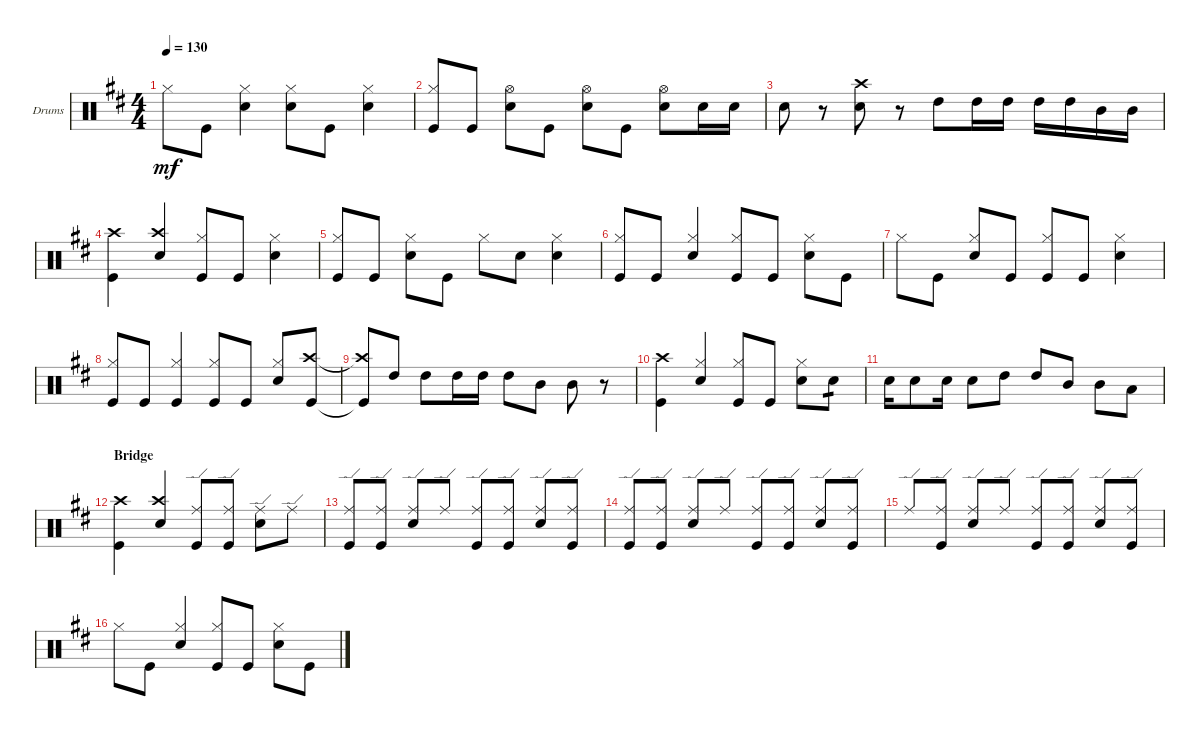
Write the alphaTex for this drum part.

\defaultSystemsLayout 4
\bracketExtendMode groupsimilarinstruments
\firstSystemTrackNameOrientation horizontal
\otherSystemsTrackNameOrientation horizontal
\track ("PETER CRISS" "Drums") {instrument percussion}
\staff {score}
\articulation defaults
\ts (4 4)
\tempo 130
\clef neutral
\scale
0.333333
\ks d "Hi-Hat (closed)".8{dy mf} "Kick (hit)".8
("Snare (hit) 2" "Hi-Hat (closed)").4 ("Hi-Hat (closed)" "Snare (hit) 2").8 "Kick (hit)".8 ("Snare (hit) 2" "Hi-Hat (closed)").4 |
\scale
0.333333 ("Hi-Hat (closed)" "Kick (hit)").8{beam invert} "Kick (hit)".8 ("Hi-Hat (open)" "Snare (hit) 2").8 "Kick (hit)".8 ("Hi-Hat (open)" "Snare (hit) 2").8 "Kick (hit)".8 ("Hi-Hat (open)" "Snare (hit) 2").8 "Snare (hit) 2".16 "Snare (hit) 2".16 |
\scale
0.333333 "Snare (hit) 2".8 r.8 ("Snare (hit) 2" "Crash high (hit)").8 r.8 "High Tom (hit)".8 "High Tom (hit)".16 "High Tom (hit)".16 "High Tom (hit)".16 "High Tom (hit)".16 "Mid Tom (hit)".16 "Mid Tom (hit)".16 |
\scale
0.333333 ("Crash high (hit)" "Kick (hit)").4 ("Snare (hit) 2" "Crash high (hit)").4 ("Hi-Hat (closed)" "Kick (hit)").8{beam invert} "Kick (hit)".8 ("Snare (hit) 2" "Hi-Hat (closed)").4 |
\scale
0.333333 ("Kick (hit)" "Hi-Hat (closed)").8{beam invert} "Kick (hit)".8 ("Snare (hit) 2" "Hi-Hat (closed)").8 "Kick (hit)".8 "Hi-Hat (closed)".8 "Snare (hit) 2".8 ("Snare (hit) 2" "Hi-Hat (closed)").4 |
\scale
0.333333 ("Kick (hit)" "Hi-Hat (closed)").8{beam invert} "Kick (hit)".8 ("Snare (hit) 2" "Hi-Hat (closed)").4 ("Hi-Hat (closed)" "Kick (hit)").8{beam invert} "Kick (hit)".8 ("Snare (hit) 2" "Hi-Hat (closed)").8 "Kick (hit)".8 |
\scale
0.333333 "Hi-Hat (closed)".8 "Kick (hit)".8 ("Snare (hit) 2" "Hi-Hat (closed)").8 "Kick (hit)".8 ("Kick (hit)" "Hi-Hat (closed)").8{beam invert} "Kick (hit)".8 ("Snare (hit) 2" "Hi-Hat (closed)").4 |
\scale
0.333333 ("Kick (hit)" "Hi-Hat (closed)").8{beam invert} "Kick (hit)".8 ("Kick (hit)" "Hi-Hat (closed)").4 ("Hi-Hat (closed)" "Kick (hit)").8{beam invert} "Kick (hit)".8 ("Snare (hit) 2" "Hi-Hat (closed)").8{beam invert} ("Crash high (hit)" "Kick (hit)").8 |
\scale
0.333333 ("Crash high (hit)"{t} "Kick (hit)"{t}).8{beam invert} "High Tom (hit)".8 "High Tom (hit)".8 "High Tom (hit)".16 "High Tom (hit)".16 "High Tom (hit)".8 "Mid Tom (hit)".8 "Mid Tom (hit)".8 r.8 |
\scale
0.333333 ("Kick (hit)" "Crash high (hit)").4 ("Snare (hit) 2" "Hi-Hat (closed)").4 ("Hi-Hat (closed)" "Kick (hit)").8{beam invert} "Kick (hit)".8 ("Snare (hit) 2" "Hi-Hat (closed)").8 "Snare (hit) 2".8{tp 1} |
\scale
0.333333 "Snare (hit) 2".16 "Snare (hit) 2".8 "Snare (hit) 2".16 "Snare (hit) 2".8 "High Tom (hit)".8 "High Tom (hit)".8 "Mid Tom (hit)".8 "Mid Tom (hit)".8{beam invert} "Low Tom (hit)".8 |
\section ("" "Bridge")
\scale
0.333333 ("Kick (hit)" "Crash high (hit)").4 ("Snare (hit) 2" "Crash high (hit)").4 ("Ride (edge)" "Kick (hit)").8{beam invert} ("Kick (hit)" "Ride (edge)").8 ("Snare (hit) 2" "Ride (edge)").8 "Ride (edge)".8 |
\scale
0.333333 ("Ride (edge)" "Kick (hit)").8{beam invert} ("Ride (edge)" "Kick (hit)").8 ("Ride (edge)" "Snare (hit) 2").8 "Ride (edge)".8 ("Kick (hit)" "Ride (edge)").8{beam invert} ("Ride (edge)" "Kick (hit)").8 ("Snare (hit) 2" "Ride (edge)").8{beam invert} ("Ride (edge)" "Kick (hit)").8 |
\scale
0.333333 ("Ride (edge)" "Kick (hit)").8{beam invert} ("Ride (edge)" "Kick (hit)").8 ("Ride (edge)" "Snare (hit) 2").8 "Ride (edge)".8 ("Kick (hit)" "Ride (edge)").8{beam invert} ("Ride (edge)" "Kick (hit)").8 ("Snare (hit) 2" "Ride (edge)").8{beam invert} ("Ride (edge)" "Kick (hit)").8 |
\scale
0.333333 "Ride (edge)".8{beam invert} ("Ride (edge)" "Kick (hit)").8 ("Ride (edge)" "Snare (hit) 2").8 "Ride (edge)".8 ("Kick (hit)" "Ride (edge)").8{beam invert} ("Ride (edge)" "Kick (hit)").8 ("Snare (hit) 2" "Ride (edge)").8{beam invert} ("Ride (edge)" "Kick (hit)").8 |
\scale
0.333333 "Hi-Hat (closed)".8 "Kick (hit)".8 ("Snare (hit) 2" "Hi-Hat (closed)").4 ("Kick (hit)" "Hi-Hat (closed)").8{beam invert} "Kick (hit)".8 ("Snare (hit) 2" "Hi-Hat (closed)").8 "Kick (hit)".8
